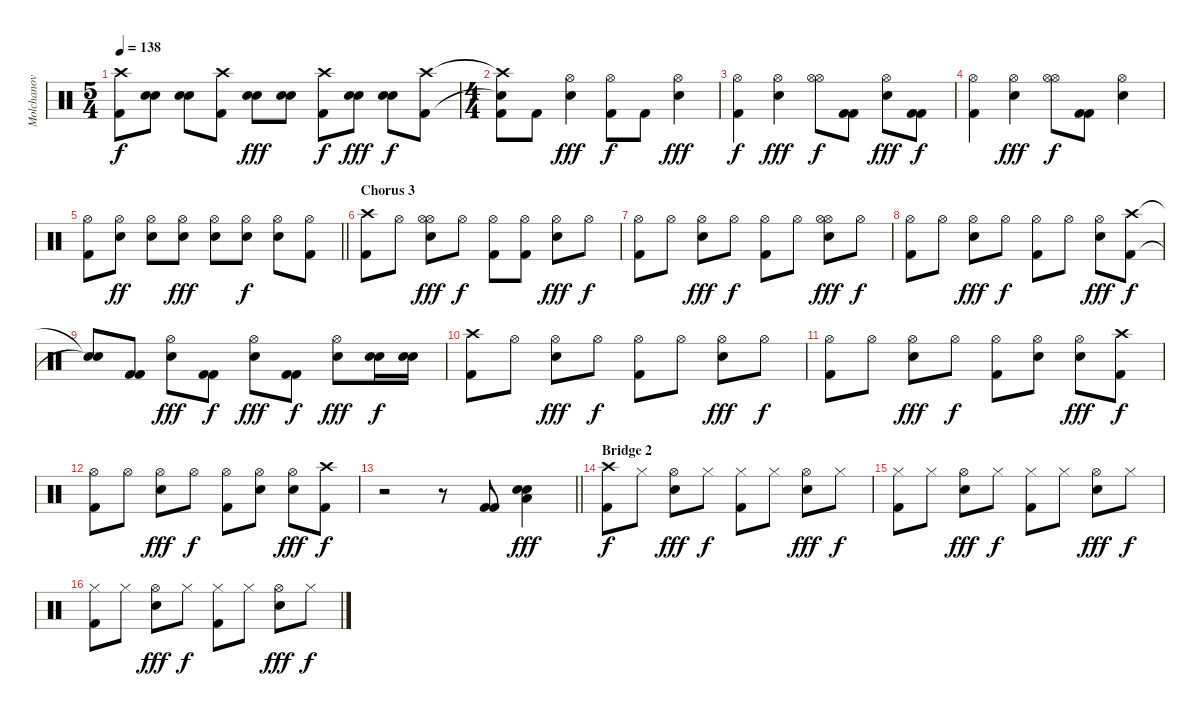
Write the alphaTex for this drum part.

\track ("Molchanov" "Molchanov") {instrument percussion}
\staff {score}
\articulation defaults
\ts (5 4)
\tempo 138
\clef neutral
\ks c
("Crash high (hit)" "Kick (hit) 2").8{dy f} ("Electric Snare (hit)" "Electric Snare (hit)").8 ("Electric Snare (hit)" "Electric Snare (hit)").8 ("Crash high (hit)" "Kick (hit) 2").8 ("Electric Snare (hit)" "Electric Snare (hit)").8{dy fff} ("Electric Snare (hit)" "Electric Snare (hit)").8 ("Crash high (hit)" "Kick (hit) 2").8{dy f} ("Electric Snare (hit)" "Electric Snare (hit)").8{dy fff} ("Electric Snare (hit)" "Electric Snare (hit)").8{dy f} ("Crash high (hit)" "Kick (hit) 2").8 |
\ts (4 4)
("Crash high (hit)"{t} "Snare (hit)"{t} "Kick (hit) 2").8 "Kick (hit) 2".8 ("Hi-Hat (open)" "Electric Snare (hit)").4{dy fff} ("Hi-Hat (open)" "Kick (hit) 2").8{dy f} "Kick (hit) 2".8 ("Hi-Hat (open)" "Electric Snare (hit)").4{dy fff} |
("Hi-Hat (open)" "Kick (hit) 2").4{dy f} ("Hi-Hat (open)" "Electric Snare (hit)").4{dy fff} ("Hi-Hat (open)" "Hi-Hat (open)").8{dy f} ("Kick (hit) 2" "Kick (hit) 2").8 ("Hi-Hat (open)" "Electric Snare (hit)").8{dy fff} ("Kick (hit) 2" "Kick (hit) 2").8{dy f} |
("Hi-Hat (open)" "Kick (hit) 2").4 ("Hi-Hat (open)" "Electric Snare (hit)").4{dy fff} ("Hi-Hat (open)" "Hi-Hat (open)").8{dy f} ("Kick (hit) 2" "Kick (hit) 2").8 ("Hi-Hat (open)" "Electric Snare (hit)").4 |
\barLineRight lightlight
("Hi-Hat (open)" "Kick (hit) 2").8 ("Hi-Hat (open)" "Electric Snare (hit)").8{dy ff} ("Hi-Hat (open)" "Electric Snare (hit)").8 ("Hi-Hat (open)" "Electric Snare (hit)").8{dy fff} ("Hi-Hat (open)" "Electric Snare (hit)").8 ("Hi-Hat (open)" "Electric Snare (hit)").8{dy f} ("Hi-Hat (open)" "Electric Snare (hit)").8 ("Hi-Hat (open)" "Kick (hit) 2").8 |
\section ("" "Chorus 3")
("Crash high (hit)" "Kick (hit) 2").8 "Hi-Hat (open)".8 ("Hi-Hat (open)" "Hi-Hat (open)" "Electric Snare (hit)").8{dy fff} "Hi-Hat (open)".8{dy f} ("Hi-Hat (open)" "Kick (hit) 2").8 ("Hi-Hat (open)" "Kick (hit) 2").8 ("Hi-Hat (open)" "Electric Snare (hit)").8{dy fff} "Hi-Hat (open)".8{dy f} |
("Hi-Hat (open)" "Kick (hit) 2").8 "Hi-Hat (open)".8 ("Hi-Hat (open)" "Electric Snare (hit)").8{dy fff} "Hi-Hat (open)".8{dy f} ("Hi-Hat (open)" "Kick (hit) 2").8 "Hi-Hat (open)".8 ("Hi-Hat (open)" "Hi-Hat (open)" "Electric Snare (hit)").8{dy fff} "Hi-Hat (open)".8{dy f} |
("Hi-Hat (open)" "Kick (hit) 2").8 "Hi-Hat (open)".8 ("Hi-Hat (open)" "Electric Snare (hit)").8{dy fff} "Hi-Hat (open)".8{dy f} ("Hi-Hat (open)" "Kick (hit) 2").8 "Hi-Hat (open)".8 ("Hi-Hat (open)" "Electric Snare (hit)").8{dy fff} ("Crash high (hit)" "Kick (hit) 2").8{dy f} |
("Snare (hit)"{t} "Snare (hit)"{t}).8 ("Kick (hit) 2" "Kick (hit) 2").8 ("Hi-Hat (open)" "Electric Snare (hit)").8{dy fff} ("Kick (hit) 2" "Kick (hit) 2").8{dy f} ("Hi-Hat (open)" "Electric Snare (hit)").8{dy fff} ("Kick (hit) 2" "Kick (hit) 2").8{dy f} ("Hi-Hat (open)" "Electric Snare (hit)").8{dy fff} ("Electric Snare (hit)" "Electric Snare (hit)").16{dy f} ("Electric Snare (hit)" "Electric Snare (hit)").16 |
("Crash high (hit)" "Kick (hit) 2").8 "Hi-Hat (open)".8 ("Hi-Hat (open)" "Electric Snare (hit)").8{dy fff} "Hi-Hat (open)".8{dy f} ("Hi-Hat (open)" "Kick (hit) 2").8 "Hi-Hat (open)".8 ("Hi-Hat (open)" "Electric Snare (hit)").8{dy fff} "Hi-Hat (open)".8{dy f} |
("Hi-Hat (open)" "Kick (hit) 2").8 "Hi-Hat (open)".8 ("Hi-Hat (open)" "Electric Snare (hit)").8{dy fff} "Hi-Hat (open)".8{dy f} ("Hi-Hat (open)" "Kick (hit) 2").8 ("Hi-Hat (open)" "Electric Snare (hit)").8 ("Hi-Hat (open)" "Electric Snare (hit)").8{dy fff} ("Crash high (hit)" "Kick (hit) 2").8{dy f} |
("Hi-Hat (open)" "Kick (hit) 2").8 "Hi-Hat (open)".8 ("Hi-Hat (open)" "Electric Snare (hit)").8{dy fff} "Hi-Hat (open)".8{dy f} ("Hi-Hat (open)" "Kick (hit) 2").8 ("Hi-Hat (open)" "Electric Snare (hit)").8 ("Hi-Hat (open)" "Electric Snare (hit)").8{dy fff} ("Crash high (hit)" "Kick (hit) 2").8{dy f} |
\barLineRight lightlight
r.2 r.8 ("Kick (hit) 2" "Kick (hit) 2").8 ("Electric Snare (hit)" "Electric Snare (hit)" "Low Tom (hit)").4{dy fff} |
\section ("" "Bridge 2")
("Crash high (hit)" "Kick (hit) 2").8{dy f} "Hi-Hat (closed)".8 ("Hi-Hat (open)" "Electric Snare (hit)").8{dy fff} "Hi-Hat (closed)".8{dy f} ("Hi-Hat (closed)" "Kick (hit) 2").8 "Hi-Hat (closed)".8 ("Hi-Hat (open)" "Electric Snare (hit)").8{dy fff} "Hi-Hat (closed)".8{dy f} |
("Hi-Hat (closed)" "Kick (hit) 2").8 "Hi-Hat (closed)".8 ("Hi-Hat (open)" "Electric Snare (hit)").8{dy fff} "Hi-Hat (closed)".8{dy f} ("Hi-Hat (closed)" "Kick (hit) 2").8 "Hi-Hat (closed)".8 ("Hi-Hat (open)" "Electric Snare (hit)").8{dy fff} "Hi-Hat (closed)".8{dy f} |
("Hi-Hat (closed)" "Kick (hit) 2").8 "Hi-Hat (closed)".8 ("Hi-Hat (open)" "Electric Snare (hit)").8{dy fff} "Hi-Hat (closed)".8{dy f} ("Hi-Hat (closed)" "Kick (hit) 2").8 "Hi-Hat (closed)".8 ("Hi-Hat (open)" "Electric Snare (hit)").8{dy fff} "Hi-Hat (closed)".8{dy f}
